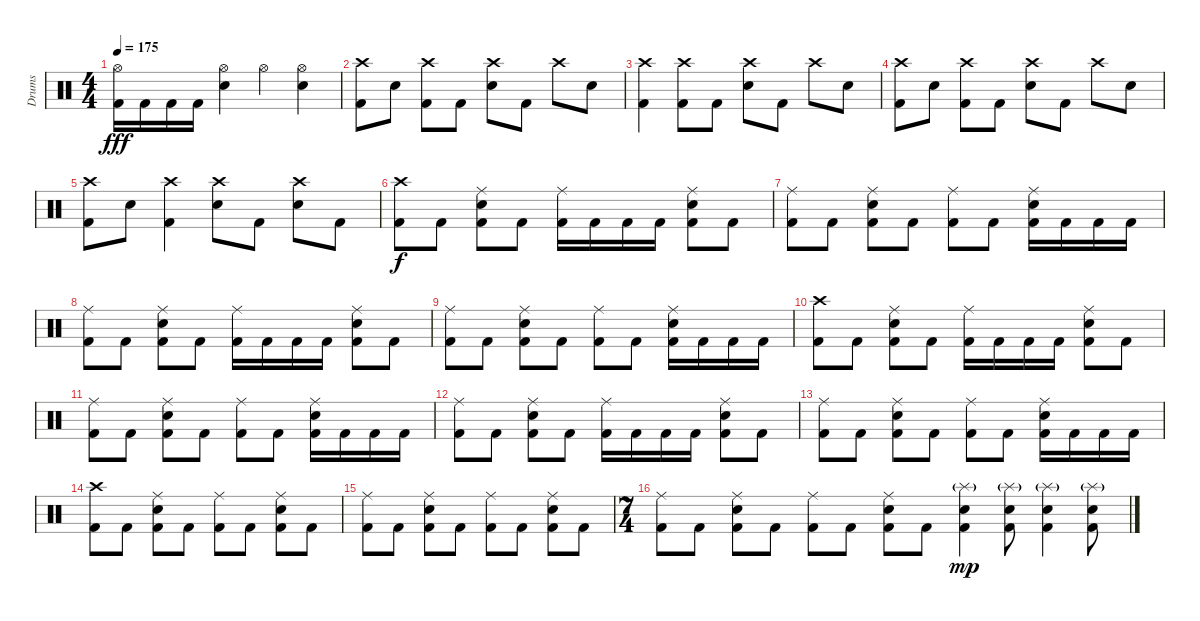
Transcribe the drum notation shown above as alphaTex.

\track ("Drums" "Drums") {instrument percussion}
\staff {score}
\articulation defaults
\ts (4 4)
\tempo 175
\clef neutral
\ks c
("Hi-Hat (open)" "Kick (hit) 2").16{dy fff} "Kick (hit) 2".16 "Kick (hit) 2".16 "Kick (hit) 2".16 ("Hi-Hat (open)" "Electric Snare (hit)").4 "Hi-Hat (open)".4 ("Hi-Hat (open)" "Electric Snare (hit)").4 |
("Crash high (hit)" "Kick (hit) 2").8 "Electric Snare (hit)".8 ("Crash high (hit)" "Kick (hit) 2").8 "Kick (hit) 2".8 ("Crash high (hit)" "Electric Snare (hit)").8 "Kick (hit) 2".8 "Crash high (hit)".8 "Electric Snare (hit)".8 |
("Crash high (hit)" "Kick (hit) 2").4 ("Crash high (hit)" "Kick (hit) 2").8 "Kick (hit) 2".8 ("Crash high (hit)" "Electric Snare (hit)").8 "Kick (hit) 2".8 "Crash high (hit)".8 "Electric Snare (hit)".8 |
("Crash high (hit)" "Kick (hit) 2").8 "Electric Snare (hit)".8 ("Crash high (hit)" "Kick (hit) 2").8 "Kick (hit) 2".8 ("Crash high (hit)" "Electric Snare (hit)").8 "Kick (hit) 2".8 "Crash high (hit)".8 "Electric Snare (hit)".8 |
("Crash high (hit)" "Kick (hit) 2").8 "Electric Snare (hit)".8 ("Crash high (hit)" "Kick (hit) 2").4 ("Crash high (hit)" "Electric Snare (hit)").8 "Kick (hit) 2".8 ("Crash high (hit)" "Electric Snare (hit)").8 "Kick (hit) 2".8 |
("Crash high (hit)" "Kick (hit) 2").8{dy f} "Kick (hit) 2".8 ("Ride (middle)" "Electric Snare (hit)" "Kick (hit) 2").8 "Kick (hit) 2".8 ("Ride (middle)" "Kick (hit) 2").16 "Kick (hit) 2".16 "Kick (hit) 2".16 "Kick (hit) 2".16 ("Ride (middle)" "Electric Snare (hit)" "Kick (hit) 2").8 "Kick (hit) 2".8 |
("Ride (middle)" "Kick (hit) 2").8 "Kick (hit) 2".8 ("Ride (middle)" "Electric Snare (hit)" "Kick (hit) 2").8 "Kick (hit) 2".8 ("Ride (middle)" "Kick (hit) 2").8 "Kick (hit) 2".8 ("Ride (middle)" "Electric Snare (hit)" "Kick (hit) 2").16 "Kick (hit) 2".16 "Kick (hit) 2".16 "Kick (hit) 2".16 |
("Ride (middle)" "Kick (hit) 2").8 "Kick (hit) 2".8 ("Ride (middle)" "Electric Snare (hit)" "Kick (hit) 2").8 "Kick (hit) 2".8 ("Ride (middle)" "Kick (hit) 2").16 "Kick (hit) 2".16 "Kick (hit) 2".16 "Kick (hit) 2".16 ("Ride (middle)" "Electric Snare (hit)" "Kick (hit) 2").8 "Kick (hit) 2".8 |
("Ride (middle)" "Kick (hit) 2").8 "Kick (hit) 2".8 ("Ride (middle)" "Electric Snare (hit)" "Kick (hit) 2").8 "Kick (hit) 2".8 ("Ride (middle)" "Kick (hit) 2").8 "Kick (hit) 2".8 ("Ride (middle)" "Electric Snare (hit)" "Kick (hit) 2").16 "Kick (hit) 2".16 "Kick (hit) 2".16 "Kick (hit) 2".16 |
("Crash high (hit)" "Kick (hit) 2").8 "Kick (hit) 2".8 ("Ride (middle)" "Electric Snare (hit)" "Kick (hit) 2").8 "Kick (hit) 2".8 ("Ride (middle)" "Kick (hit) 2").16 "Kick (hit) 2".16 "Kick (hit) 2".16 "Kick (hit) 2".16 ("Ride (middle)" "Electric Snare (hit)" "Kick (hit) 2").8 "Kick (hit) 2".8 |
("Ride (middle)" "Kick (hit) 2").8 "Kick (hit) 2".8 ("Ride (middle)" "Electric Snare (hit)" "Kick (hit) 2").8 "Kick (hit) 2".8 ("Ride (middle)" "Kick (hit) 2").8 "Kick (hit) 2".8 ("Ride (middle)" "Electric Snare (hit)" "Kick (hit) 2").16 "Kick (hit) 2".16 "Kick (hit) 2".16 "Kick (hit) 2".16 |
("Ride (middle)" "Kick (hit) 2").8 "Kick (hit) 2".8 ("Ride (middle)" "Electric Snare (hit)" "Kick (hit) 2").8 "Kick (hit) 2".8 ("Ride (middle)" "Kick (hit) 2").16 "Kick (hit) 2".16 "Kick (hit) 2".16 "Kick (hit) 2".16 ("Ride (middle)" "Electric Snare (hit)" "Kick (hit) 2").8 "Kick (hit) 2".8 |
("Ride (middle)" "Kick (hit) 2").8 "Kick (hit) 2".8 ("Ride (middle)" "Electric Snare (hit)" "Kick (hit) 2").8 "Kick (hit) 2".8 ("Ride (middle)" "Kick (hit) 2").8 "Kick (hit) 2".8 ("Ride (middle)" "Electric Snare (hit)" "Kick (hit) 2").16 "Kick (hit) 2".16 "Kick (hit) 2".16 "Kick (hit) 2".16 |
("Crash high (hit)" "Kick (hit) 2").8 "Kick (hit) 2".8 ("Ride (middle)" "Electric Snare (hit)" "Kick (hit) 2").8 "Kick (hit) 2".8 ("Ride (middle)" "Kick (hit) 2").8 "Kick (hit) 2".8 ("Ride (middle)" "Electric Snare (hit)" "Kick (hit) 2").8 "Kick (hit) 2".8 |
("Ride (middle)" "Kick (hit) 2").8 "Kick (hit) 2".8 ("Ride (middle)" "Electric Snare (hit)" "Kick (hit) 2").8 "Kick (hit) 2".8 ("Ride (middle)" "Kick (hit) 2").8 "Kick (hit) 2".8 ("Ride (middle)" "Electric Snare (hit)" "Kick (hit) 2").8 "Kick (hit) 2".8 |
\ts (7 4)
("Ride (middle)" "Kick (hit) 2").8 "Kick (hit) 2".8 ("Ride (middle)" "Electric Snare (hit)" "Kick (hit) 2").8 "Kick (hit) 2".8 ("Ride (middle)" "Kick (hit) 2").8 "Kick (hit) 2".8 ("Ride (middle)" "Electric Snare (hit)" "Kick (hit) 2").8 "Kick (hit) 2".8 ("Splash (hit)"{g} "Electric Snare (hit)" "Kick (hit) 2").4{dy mp} ("Splash (hit)"{g} "Electric Snare (hit)" "Kick (hit) 2").8 ("Splash (hit)"{g} "Electric Snare (hit)" "Kick (hit) 2").4 ("Splash (hit)"{g} "Electric Snare (hit)" "Kick (hit) 2").8
